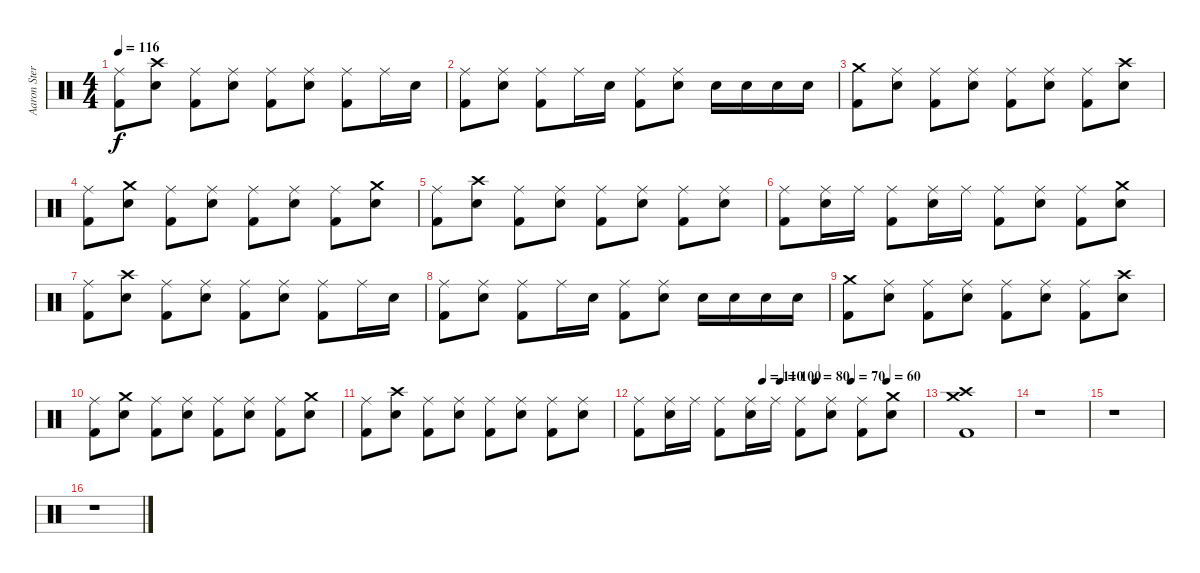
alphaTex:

\track ("Aaron Stern" "Aaron Ster") {instrument percussion}
\staff {score}
\articulation defaults
\ts (4 4)
\tempo 116
\clef neutral
\ks c
("Ride (middle)" "Kick (hit) 2").8{dy f} ("Crash high (hit)" "Snare (hit) 2").8 ("Ride (middle)" "Kick (hit) 2").8 ("Ride (middle)" "Snare (hit) 2").8 ("Ride (middle)" "Kick (hit) 2").8 ("Ride (middle)" "Snare (hit) 2").8 ("Ride (middle)" "Kick (hit) 2").8 "Ride (middle)".16 "Snare (hit) 2".16 |
("Ride (middle)" "Kick (hit) 2").8 ("Ride (middle)" "Snare (hit) 2").8 ("Ride (middle)" "Kick (hit) 2").8 "Ride (middle)".16 "Snare (hit) 2".16 ("Ride (middle)" "Kick (hit) 2").8 ("Ride (middle)" "Snare (hit) 2").8 "Snare (hit) 2".16 "Snare (hit) 2".16 "Snare (hit) 2".16 "Snare (hit) 2".16 |
("Crash medium (hit)" "Kick (hit) 2").8 ("Ride (middle)" "Snare (hit) 2").8 ("Ride (middle)" "Kick (hit) 2").8 ("Ride (middle)" "Snare (hit) 2").8 ("Ride (middle)" "Kick (hit) 2").8 ("Ride (middle)" "Snare (hit) 2").8 ("Ride (middle)" "Kick (hit) 2").8 ("Crash high (hit)" "Snare (hit) 2").8 |
("Ride (middle)" "Kick (hit) 2").8 ("Crash medium (hit)" "Snare (hit) 2").8 ("Ride (middle)" "Kick (hit) 2").8 ("Ride (middle)" "Snare (hit) 2").8 ("Ride (middle)" "Kick (hit) 2").8 ("Ride (middle)" "Snare (hit) 2").8 ("Ride (middle)" "Kick (hit) 2").8 ("Crash medium (hit)" "Snare (hit) 2").8 |
("Ride (middle)" "Kick (hit) 2").8 ("Crash high (hit)" "Snare (hit) 2").8 ("Ride (middle)" "Kick (hit) 2").8 ("Ride (middle)" "Snare (hit) 2").8 ("Ride (middle)" "Kick (hit) 2").8 ("Ride (middle)" "Snare (hit) 2").8 ("Ride (middle)" "Kick (hit) 2").8 ("Ride (middle)" "Snare (hit) 2").8 |
("Ride (middle)" "Kick (hit) 2").8 ("Ride (middle)" "Snare (hit) 2").16 "Ride (middle)".16 ("Ride (middle)" "Kick (hit) 2").8 ("Ride (middle)" "Snare (hit) 2").16 "Ride (middle)".16 ("Ride (middle)" "Kick (hit) 2").8 ("Ride (middle)" "Snare (hit) 2").8 ("Ride (middle)" "Kick (hit) 2").8 ("Crash medium (hit)" "Snare (hit) 2").8 |
("Ride (middle)" "Kick (hit) 2").8 ("Crash high (hit)" "Snare (hit) 2").8 ("Ride (middle)" "Kick (hit) 2").8 ("Ride (middle)" "Snare (hit) 2").8 ("Ride (middle)" "Kick (hit) 2").8 ("Ride (middle)" "Snare (hit) 2").8 ("Ride (middle)" "Kick (hit) 2").8 "Ride (middle)".16 "Snare (hit) 2".16 |
("Ride (middle)" "Kick (hit) 2").8 ("Ride (middle)" "Snare (hit) 2").8 ("Ride (middle)" "Kick (hit) 2").8 "Ride (middle)".16 "Snare (hit) 2".16 ("Ride (middle)" "Kick (hit) 2").8 ("Ride (middle)" "Snare (hit) 2").8 "Snare (hit) 2".16 "Snare (hit) 2".16 "Snare (hit) 2".16 "Snare (hit) 2".16 |
("Crash medium (hit)" "Kick (hit) 2").8 ("Ride (middle)" "Snare (hit) 2").8 ("Ride (middle)" "Kick (hit) 2").8 ("Ride (middle)" "Snare (hit) 2").8 ("Ride (middle)" "Kick (hit) 2").8 ("Ride (middle)" "Snare (hit) 2").8 ("Ride (middle)" "Kick (hit) 2").8 ("Crash high (hit)" "Snare (hit) 2").8 |
("Ride (middle)" "Kick (hit) 2").8 ("Crash medium (hit)" "Snare (hit) 2").8 ("Ride (middle)" "Kick (hit) 2").8 ("Ride (middle)" "Snare (hit) 2").8 ("Ride (middle)" "Kick (hit) 2").8 ("Ride (middle)" "Snare (hit) 2").8 ("Ride (middle)" "Kick (hit) 2").8 ("Crash medium (hit)" "Snare (hit) 2").8 |
("Ride (middle)" "Kick (hit) 2").8 ("Crash high (hit)" "Snare (hit) 2").8 ("Ride (middle)" "Kick (hit) 2").8 ("Ride (middle)" "Snare (hit) 2").8 ("Ride (middle)" "Kick (hit) 2").8 ("Ride (middle)" "Snare (hit) 2").8 ("Ride (middle)" "Kick (hit) 2").8 ("Ride (middle)" "Snare (hit) 2").8 |
\tempo (100 0.5)
\tempo (80 0.625)
\tempo (70 0.75)
\tempo (60 0.875)
\tempo (110 0.4375)
("Ride (middle)" "Kick (hit) 2").8 ("Ride (middle)" "Snare (hit) 2").16 "Ride (middle)".16 ("Ride (middle)" "Kick (hit) 2").8 ("Ride (middle)" "Snare (hit) 2").16 "Ride (middle)".16 ("Ride (middle)" "Kick (hit) 2").8 ("Ride (middle)" "Snare (hit) 2").8 ("Ride (middle)" "Kick (hit) 2").8 ("Crash medium (hit)" "Snare (hit) 2").8 |
("Crash medium (hit)" "Crash high (hit)" "Kick (hit) 2").1 |
r.1 |
r.1 |
r.1
